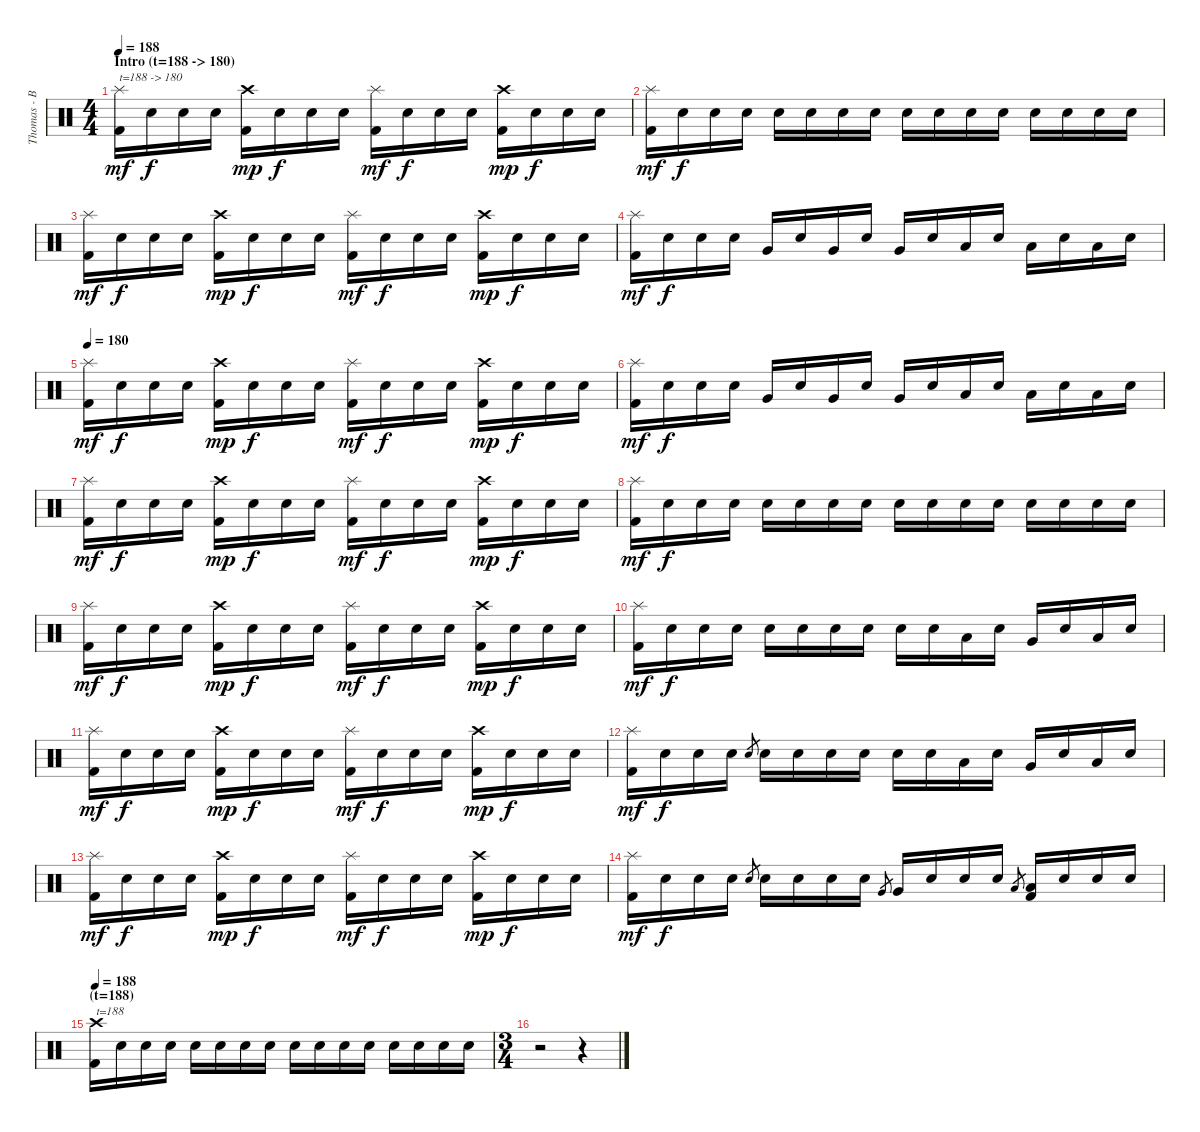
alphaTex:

\track ("Thomas - Batterie" "Thomas - B") {instrument percussion}
\staff {score}
\articulation defaults
\ts (4 4)
\section ("" "Intro (t=188 -> 180)")
\tempo 188
\clef neutral
\ks c
("Splash (hit)" "Kick (hit) 2").16{txt "t=188 -> 180" dy mf volume 16 balance 8} "Snare (hit)".16{dy f} "Snare (hit)".16 "Snare (hit)".16 ("Crash high (hit)" "Kick (hit) 2").16{dy mp} "Snare (hit)".16{dy f} "Snare (hit)".16 "Snare (hit)".16 ("Splash (hit)" "Kick (hit) 2").16{dy mf} "Snare (hit)".16{dy f} "Snare (hit)".16 "Snare (hit)".16 ("Crash high (hit)" "Kick (hit) 2").16{dy mp} "Snare (hit)".16{dy f} "Snare (hit)".16 "Snare (hit)".16 |
("Splash (hit)" "Kick (hit) 2").16{dy mf} "Snare (hit)".16{dy f} "Snare (hit)".16 "Snare (hit)".16 "Electric Snare (hit)".16 "Snare (hit)".16 "Electric Snare (hit)".16 "Snare (hit)".16 "Electric Snare (hit)".16 "Snare (hit)".16 "Electric Snare (hit)".16 "Snare (hit)".16 "Electric Snare (hit)".16 "Snare (hit)".16 "Electric Snare (hit)".16 "Snare (hit)".16 |
("Splash (hit)" "Kick (hit) 2").16{dy mf} "Snare (hit)".16{dy f} "Snare (hit)".16 "Snare (hit)".16 ("Crash high (hit)" "Kick (hit) 2").16{dy mp} "Snare (hit)".16{dy f} "Snare (hit)".16 "Snare (hit)".16 ("Splash (hit)" "Kick (hit) 2").16{dy mf} "Snare (hit)".16{dy f} "Snare (hit)".16 "Snare (hit)".16 ("Crash high (hit)" "Kick (hit) 2").16{dy mp} "Snare (hit)".16{dy f} "Snare (hit)".16 "Snare (hit)".16 |
("Splash (hit)" "Kick (hit) 2").16{dy mf} "Snare (hit)".16{dy f} "Snare (hit)".16 "Snare (hit)".16 "Very Low Tom (hit)".16 "Snare (hit)".16 "Very Low Tom (hit)".16 "Snare (hit)".16 "Very Low Tom (hit)".16 "Snare (hit)".16 "Low Floor Tom (hit)".16 "Snare (hit)".16 "Low Floor Tom (hit)".16 "Snare (hit)".16 "Low Floor Tom (hit)".16 "Snare (hit)".16 |
\tempo 180
("Splash (hit)" "Kick (hit) 2").16{dy mf} "Snare (hit)".16{dy f} "Snare (hit)".16 "Snare (hit)".16 ("Crash high (hit)" "Kick (hit) 2").16{dy mp} "Snare (hit)".16{dy f} "Snare (hit)".16 "Snare (hit)".16 ("Splash (hit)" "Kick (hit) 2").16{dy mf} "Snare (hit)".16{dy f} "Snare (hit)".16 "Snare (hit)".16 ("Crash high (hit)" "Kick (hit) 2").16{dy mp} "Snare (hit)".16{dy f} "Snare (hit)".16 "Snare (hit)".16 |
("Splash (hit)" "Kick (hit) 2").16{dy mf} "Snare (hit)".16{dy f} "Snare (hit)".16 "Snare (hit)".16 "Very Low Tom (hit)".16 "Snare (hit)".16 "Very Low Tom (hit)".16 "Snare (hit)".16 "Very Low Tom (hit)".16 "Snare (hit)".16 "Low Floor Tom (hit)".16 "Snare (hit)".16 "Low Floor Tom (hit)".16 "Snare (hit)".16 "Low Floor Tom (hit)".16 "Snare (hit)".16 |
("Splash (hit)" "Kick (hit) 2").16{dy mf} "Snare (hit)".16{dy f} "Snare (hit)".16 "Snare (hit)".16 ("Crash high (hit)" "Kick (hit) 2").16{dy mp} "Snare (hit)".16{dy f} "Snare (hit)".16 "Snare (hit)".16 ("Splash (hit)" "Kick (hit) 2").16{dy mf} "Snare (hit)".16{dy f} "Snare (hit)".16 "Snare (hit)".16 ("Crash high (hit)" "Kick (hit) 2").16{dy mp} "Snare (hit)".16{dy f} "Snare (hit)".16 "Snare (hit)".16 |
("Splash (hit)" "Kick (hit) 2").16{dy mf} "Snare (hit)".16{dy f} "Snare (hit)".16 "Snare (hit)".16 "Electric Snare (hit)".16 "Snare (hit)".16 "Snare (hit)".16 "Snare (hit)".16 "Electric Snare (hit)".16 "Snare (hit)".16 "Electric Snare (hit)".16 "Snare (hit)".16 "Electric Snare (hit)".16 "Snare (hit)".16 "Electric Snare (hit)".16 "Snare (hit)".16 |
("Splash (hit)" "Kick (hit) 2").16{dy mf} "Snare (hit)".16{dy f} "Snare (hit)".16 "Snare (hit)".16 ("Crash high (hit)" "Kick (hit) 2").16{dy mp} "Snare (hit)".16{dy f} "Snare (hit)".16 "Snare (hit)".16 ("Splash (hit)" "Kick (hit) 2").16{dy mf} "Snare (hit)".16{dy f} "Snare (hit)".16 "Snare (hit)".16 ("Crash high (hit)" "Kick (hit) 2").16{dy mp} "Snare (hit)".16{dy f} "Snare (hit)".16 "Snare (hit)".16 |
("Splash (hit)" "Kick (hit) 2").16{dy mf} "Snare (hit)".16{dy f} "Snare (hit)".16 "Snare (hit)".16 "Electric Snare (hit)".16 "Snare (hit)".16 "Snare (hit)".16 "Snare (hit)".16 "Electric Snare (hit)".16 "Snare (hit)".16 "Low Tom (hit)".16 "Snare (hit)".16 "Very Low Tom (hit)".16 "Snare (hit)".16 "Low Floor Tom (hit)".16 "Snare (hit)".16 |
("Splash (hit)" "Kick (hit) 2").16{dy mf} "Snare (hit)".16{dy f} "Snare (hit)".16 "Snare (hit)".16 ("Crash high (hit)" "Kick (hit) 2").16{dy mp} "Snare (hit)".16{dy f} "Snare (hit)".16 "Snare (hit)".16 ("Splash (hit)" "Kick (hit) 2").16{dy mf} "Snare (hit)".16{dy f} "Snare (hit)".16 "Snare (hit)".16 ("Crash high (hit)" "Kick (hit) 2").16{dy mp} "Snare (hit)".16{dy f} "Snare (hit)".16 "Snare (hit)".16 |
("Splash (hit)" "Kick (hit) 2").16{dy mf} "Snare (hit)".16{dy f} "Snare (hit)".16 "Snare (hit)".16 "Electric Snare (hit)".8{gr} "Electric Snare (hit)".16 "Snare (hit)".16 "Snare (hit)".16 "Snare (hit)".16 "Electric Snare (hit)".16 "Snare (hit)".16 "Low Tom (hit)".16 "Snare (hit)".16 "Very Low Tom (hit)".16 "Snare (hit)".16 "Low Floor Tom (hit)".16 "Snare (hit)".16 |
("Splash (hit)" "Kick (hit) 2").16{dy mf} "Snare (hit)".16{dy f} "Snare (hit)".16 "Snare (hit)".16 ("Crash high (hit)" "Kick (hit) 2").16{dy mp} "Snare (hit)".16{dy f} "Snare (hit)".16 "Snare (hit)".16 ("Splash (hit)" "Kick (hit) 2").16{dy mf} "Snare (hit)".16{dy f} "Snare (hit)".16 "Snare (hit)".16 ("Crash high (hit)" "Kick (hit) 2").16{dy mp} "Snare (hit)".16{dy f} "Snare (hit)".16 "Snare (hit)".16 |
("Splash (hit)" "Kick (hit) 2").16{dy mf} "Snare (hit)".16{dy f} "Snare (hit)".16 "Snare (hit)".16 "Electric Snare (hit)".8{gr} "Electric Snare (hit)".16 "Snare (hit)".16 "Snare (hit)".16 "Snare (hit)".16 "Very Low Tom (hit)".8{gr} "Very Low Tom (hit)".16 "Snare (hit)".16 "Snare (hit)".16 "Snare (hit)".16 "Low Floor Tom (hit)".8{gr} ("Low Floor Tom (hit)" "Kick (hit) 2").16 "Snare (hit)".16 "Snare (hit)".16 "Snare (hit)".16 |
\section ("" "(t=188)")
\tempo 188
("Crash high (hit)" "Kick (hit) 2").16{txt "t=188" volume 16 balance 8} "Snare (hit)".16 "Snare (hit)".16 "Snare (hit)".16 "Snare (hit)".16 "Snare (hit)".16 "Snare (hit)".16 "Snare (hit)".16 "Snare (hit)".16 "Snare (hit)".16 "Snare (hit)".16 "Snare (hit)".16 "Snare (hit)".16 "Snare (hit)".16 "Snare (hit)".16 "Snare (hit)".16 |
\ts (3 4)
r.2 r.4
